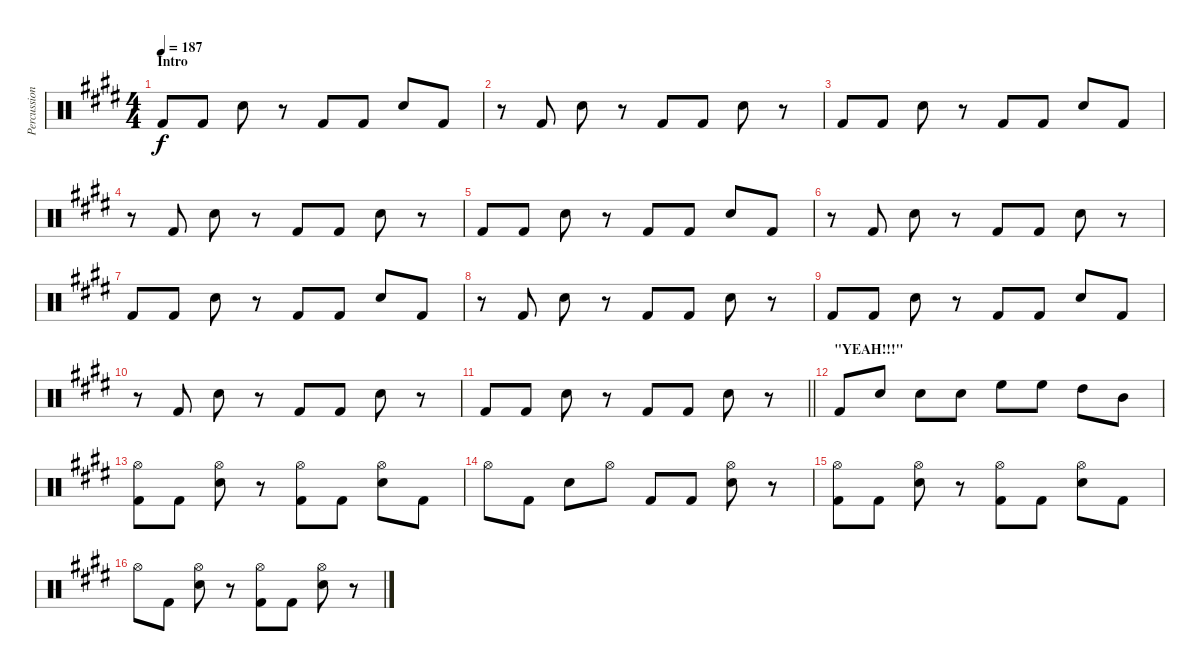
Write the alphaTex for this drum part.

\track ("Percussion" "Percussion") {instrument percussion}
\staff {score}
\articulation defaults
\ts (4 4)
\section ("" "Intro")
\tempo 187
\clef neutral
\ks e "Kick (hit) 2".8{dy f} "Kick (hit) 2".8 "Snare (hit) 2".8
r.8 "Kick (hit) 2".8 "Kick (hit) 2".8 "Snare (hit) 2".8 "Kick (hit) 2".8 |
r.8 "Kick (hit) 2".8 "Snare (hit) 2".8 r.8 "Kick (hit) 2".8 "Kick (hit) 2".8 "Snare (hit) 2".8 r.8 |
"Kick (hit) 2".8 "Kick (hit) 2".8 "Snare (hit) 2".8 r.8 "Kick (hit) 2".8 "Kick (hit) 2".8 "Snare (hit) 2".8 "Kick (hit) 2".8 |
r.8 "Kick (hit) 2".8 "Snare (hit) 2".8 r.8 "Kick (hit) 2".8 "Kick (hit) 2".8 "Snare (hit) 2".8 r.8 |
"Kick (hit) 2".8 "Kick (hit) 2".8 "Snare (hit) 2".8 r.8 "Kick (hit) 2".8 "Kick (hit) 2".8 "Snare (hit) 2".8 "Kick (hit) 2".8 |
r.8 "Kick (hit) 2".8 "Snare (hit) 2".8 r.8 "Kick (hit) 2".8 "Kick (hit) 2".8 "Snare (hit) 2".8 r.8 |
"Kick (hit) 2".8 "Kick (hit) 2".8 "Snare (hit) 2".8 r.8 "Kick (hit) 2".8 "Kick (hit) 2".8 "Snare (hit) 2".8 "Kick (hit) 2".8 |
r.8 "Kick (hit) 2".8 "Snare (hit) 2".8 r.8 "Kick (hit) 2".8 "Kick (hit) 2".8 "Snare (hit) 2".8 r.8 |
"Kick (hit) 2".8 "Kick (hit) 2".8 "Snare (hit) 2".8 r.8 "Kick (hit) 2".8 "Kick (hit) 2".8 "Snare (hit) 2".8 "Kick (hit) 2".8 |
r.8 "Kick (hit) 2".8 "Snare (hit) 2".8 r.8 "Kick (hit) 2".8 "Kick (hit) 2".8 "Snare (hit) 2".8 r.8 |
\barLineRight lightlight "Kick (hit) 2".8 "Kick (hit) 2".8 "Snare (hit) 2".8
r.8 "Kick (hit) 2".8 "Kick (hit) 2".8 "Snare (hit) 2".8 r.8 |
\section ("" "\"YEAH!!!\"")
"Kick (hit) 2".8 "Snare (hit) 2".8 "Snare (hit) 2".8 "Snare (hit) 2".8 "High Floor Tom (hit)".8 "High Floor Tom (hit)".8 "High Tom (hit)".8 "Mid Tom (hit)".8 |
("Hi-Hat (open)" "Kick (hit) 2").8 "Kick (hit) 2".8 ("Hi-Hat (open)" "Snare (hit) 2").8 r.8 ("Hi-Hat (open)" "Kick (hit) 2").8 "Kick (hit) 2".8 ("Hi-Hat (open)" "Snare (hit) 2").8 "Kick (hit) 2".8 |
"Hi-Hat (open)".8 "Kick (hit) 2".8 "Snare (hit) 2".8 "Hi-Hat (open)".8 "Kick (hit) 2".8 "Kick (hit) 2".8 ("Hi-Hat (open)" "Snare (hit) 2").8 r.8 |
("Hi-Hat (open)" "Kick (hit) 2").8 "Kick (hit) 2".8 ("Hi-Hat (open)" "Snare (hit) 2").8 r.8 ("Hi-Hat (open)" "Kick (hit) 2").8 "Kick (hit) 2".8 ("Hi-Hat (open)" "Snare (hit) 2").8 "Kick (hit) 2".8 |
"Hi-Hat (open)".8 "Kick (hit) 2".8 ("Hi-Hat (open)" "Snare (hit) 2").8 r.8 ("Hi-Hat (open)" "Kick (hit) 2").8 "Kick (hit) 2".8 ("Hi-Hat (open)" "Snare (hit) 2").8 r.8
